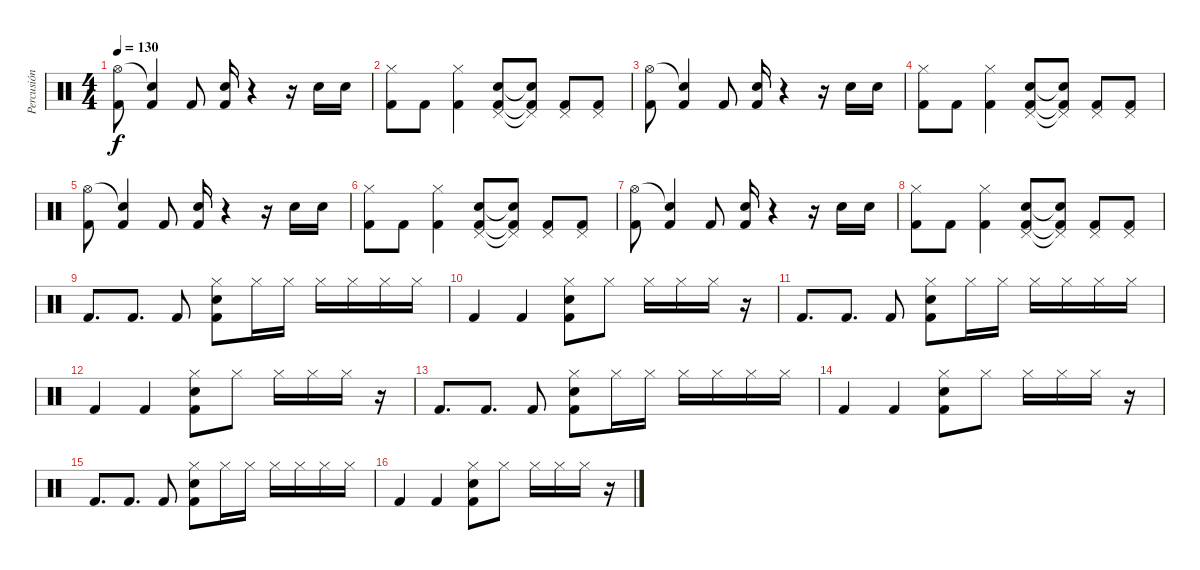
\track ("Percusión" "Percusión") {instrument percussion}
\staff {score}
\articulation defaults
\ts (4 4)
\tempo 130
\clef neutral
\ks c
("Kick (hit) 2" "Hi-Hat (open)").8{dy f} ("Kick (hit) 2" "Snare (hit)"{t}).4 "Kick (hit) 2".8 ("Electric Snare (hit)" "Kick (hit) 2").16 r.4 r.16 "Electric Snare (hit)".16 "Electric Snare (hit)".16 |
("Kick (hit) 2" "Hi-Hat (closed)").8 "Kick (hit) 2".8 ("Kick (hit) 2" "Hi-Hat (closed)").4 ("Electric Snare (hit)" "Kick (hit) 2" "Pedal Hi-Hat (hit)").8 ("Snare (hit)"{t} "Kick (hit) 2"{t} "Pedal Hi-Hat (hit)"{t}).8 ("Kick (hit) 2" "Pedal Hi-Hat (hit)").8 ("Kick (hit) 2" "Pedal Hi-Hat (hit)").8 |
("Kick (hit) 2" "Hi-Hat (open)").8 ("Kick (hit) 2" "Snare (hit)"{t}).4 "Kick (hit) 2".8 ("Electric Snare (hit)" "Kick (hit) 2").16 r.4 r.16 "Electric Snare (hit)".16 "Electric Snare (hit)".16 |
("Kick (hit) 2" "Hi-Hat (closed)").8 "Kick (hit) 2".8 ("Kick (hit) 2" "Hi-Hat (closed)").4 ("Electric Snare (hit)" "Kick (hit) 2" "Pedal Hi-Hat (hit)").8 ("Snare (hit)"{t} "Kick (hit) 2"{t} "Pedal Hi-Hat (hit)"{t}).8 ("Kick (hit) 2" "Pedal Hi-Hat (hit)").8 ("Kick (hit) 2" "Pedal Hi-Hat (hit)").8 |
("Kick (hit) 2" "Hi-Hat (open)").8 ("Kick (hit) 2" "Snare (hit)"{t}).4 "Kick (hit) 2".8 ("Electric Snare (hit)" "Kick (hit) 2").16 r.4 r.16 "Electric Snare (hit)".16 "Electric Snare (hit)".16 |
("Kick (hit) 2" "Hi-Hat (closed)").8 "Kick (hit) 2".8 ("Kick (hit) 2" "Hi-Hat (closed)").4 ("Electric Snare (hit)" "Kick (hit) 2" "Pedal Hi-Hat (hit)").8 ("Snare (hit)"{t} "Kick (hit) 2"{t} "Pedal Hi-Hat (hit)"{t}).8 ("Kick (hit) 2" "Pedal Hi-Hat (hit)").8 ("Kick (hit) 2" "Pedal Hi-Hat (hit)").8 |
("Kick (hit) 2" "Hi-Hat (open)").8 ("Kick (hit) 2" "Snare (hit)"{t}).4 "Kick (hit) 2".8 ("Electric Snare (hit)" "Kick (hit) 2").16 r.4 r.16 "Electric Snare (hit)".16 "Electric Snare (hit)".16 |
("Kick (hit) 2" "Hi-Hat (closed)").8 "Kick (hit) 2".8 ("Kick (hit) 2" "Hi-Hat (closed)").4 ("Electric Snare (hit)" "Kick (hit) 2" "Pedal Hi-Hat (hit)").8 ("Snare (hit)"{t} "Kick (hit) 2"{t} "Pedal Hi-Hat (hit)"{t}).8 ("Kick (hit) 2" "Pedal Hi-Hat (hit)").8 ("Kick (hit) 2" "Pedal Hi-Hat (hit)").8 |
"Kick (hit) 2".8{d} "Kick (hit) 2".8{d} "Kick (hit) 2".8 ("Hi-Hat (closed)" "Electric Snare (hit)" "Kick (hit) 2").8 "Hi-Hat (closed)".16 "Hi-Hat (closed)".16 "Hi-Hat (closed)".16 "Hi-Hat (closed)".16 "Hi-Hat (closed)".16 "Hi-Hat (closed)".16 |
"Kick (hit) 2".4 "Kick (hit) 2".4 ("Hi-Hat (closed)" "Electric Snare (hit)" "Kick (hit) 2").8 "Hi-Hat (closed)".8 "Hi-Hat (closed)".16 "Hi-Hat (closed)".16 "Hi-Hat (closed)".16 r.16 |
"Kick (hit) 2".8{d} "Kick (hit) 2".8{d} "Kick (hit) 2".8 ("Hi-Hat (closed)" "Electric Snare (hit)" "Kick (hit) 2").8 "Hi-Hat (closed)".16 "Hi-Hat (closed)".16 "Hi-Hat (closed)".16 "Hi-Hat (closed)".16 "Hi-Hat (closed)".16 "Hi-Hat (closed)".16 |
"Kick (hit) 2".4 "Kick (hit) 2".4 ("Hi-Hat (closed)" "Electric Snare (hit)" "Kick (hit) 2").8 "Hi-Hat (closed)".8 "Hi-Hat (closed)".16 "Hi-Hat (closed)".16 "Hi-Hat (closed)".16 r.16 |
"Kick (hit) 2".8{d} "Kick (hit) 2".8{d} "Kick (hit) 2".8 ("Hi-Hat (closed)" "Electric Snare (hit)" "Kick (hit) 2").8 "Hi-Hat (closed)".16 "Hi-Hat (closed)".16 "Hi-Hat (closed)".16 "Hi-Hat (closed)".16 "Hi-Hat (closed)".16 "Hi-Hat (closed)".16 |
"Kick (hit) 2".4 "Kick (hit) 2".4 ("Hi-Hat (closed)" "Electric Snare (hit)" "Kick (hit) 2").8 "Hi-Hat (closed)".8 "Hi-Hat (closed)".16 "Hi-Hat (closed)".16 "Hi-Hat (closed)".16 r.16 |
"Kick (hit) 2".8{d} "Kick (hit) 2".8{d} "Kick (hit) 2".8 ("Hi-Hat (closed)" "Electric Snare (hit)" "Kick (hit) 2").8 "Hi-Hat (closed)".16 "Hi-Hat (closed)".16 "Hi-Hat (closed)".16 "Hi-Hat (closed)".16 "Hi-Hat (closed)".16 "Hi-Hat (closed)".16 |
"Kick (hit) 2".4 "Kick (hit) 2".4 ("Hi-Hat (closed)" "Electric Snare (hit)" "Kick (hit) 2").8 "Hi-Hat (closed)".8 "Hi-Hat (closed)".16 "Hi-Hat (closed)".16 "Hi-Hat (closed)".16 r.16
